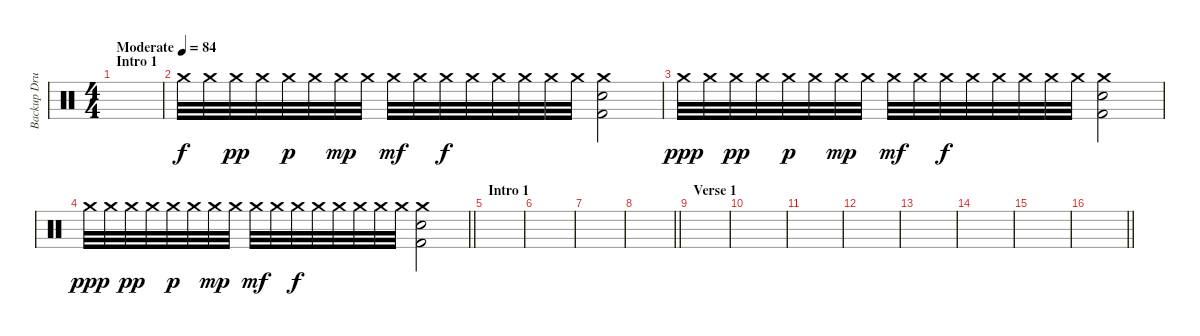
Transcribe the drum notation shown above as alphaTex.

\track ("Backup Drums" "Backup Dru") {instrument percussion}
\staff {score}
\articulation defaults
\ts (4 4)
\section ("" "Intro 1")
\tempo (84 "Moderate")
\clef neutral
\ks c
|
"Crash medium (hit)".32 "Crash medium (hit)".32 "Crash medium (hit)".32{dy pp} "Crash medium (hit)".32 "Crash medium (hit)".32{dy p} "Crash medium (hit)".32 "Crash medium (hit)".32{dy mp} "Crash medium (hit)".32 "Crash medium (hit)".32{dy mf} "Crash medium (hit)".32 "Crash medium (hit)".32{dy f} "Crash medium (hit)".32 "Crash medium (hit)".32 "Crash medium (hit)".32 "Crash medium (hit)".32 "Crash medium (hit)".32 ("Crash medium (hit)" "Snare (hit) 2" "Kick (hit) 2").2 |
"Crash medium (hit)".32{dy ppp} "Crash medium (hit)".32 "Crash medium (hit)".32{dy pp} "Crash medium (hit)".32 "Crash medium (hit)".32{dy p} "Crash medium (hit)".32 "Crash medium (hit)".32{dy mp} "Crash medium (hit)".32 "Crash medium (hit)".32{dy mf} "Crash medium (hit)".32 "Crash medium (hit)".32{dy f} "Crash medium (hit)".32 "Crash medium (hit)".32 "Crash medium (hit)".32 "Crash medium (hit)".32 "Crash medium (hit)".32 ("Crash medium (hit)" "Snare (hit) 2" "Kick (hit) 2").2 |
\barLineRight lightlight "Crash medium (hit)".32{dy ppp} "Crash medium (hit)".32 "Crash medium (hit)".32{dy pp} "Crash medium (hit)".32 "Crash medium (hit)".32{dy p} "Crash medium (hit)".32 "Crash medium (hit)".32{dy mp} "Crash medium (hit)".32 "Crash medium (hit)".32{dy mf} "Crash medium (hit)".32 "Crash medium (hit)".32{dy f} "Crash medium (hit)".32 "Crash medium (hit)".32 "Crash medium (hit)".32 "Crash medium (hit)".32 "Crash medium (hit)".32
("Crash medium (hit)" "Snare (hit) 2" "Kick (hit) 2").2 |
\section ("" "Intro 1")
|
|
|
\barLineRight lightlight
|
\section ("" "Verse 1")
|
|
|
|
|
|
|
\barLineRight lightlight
